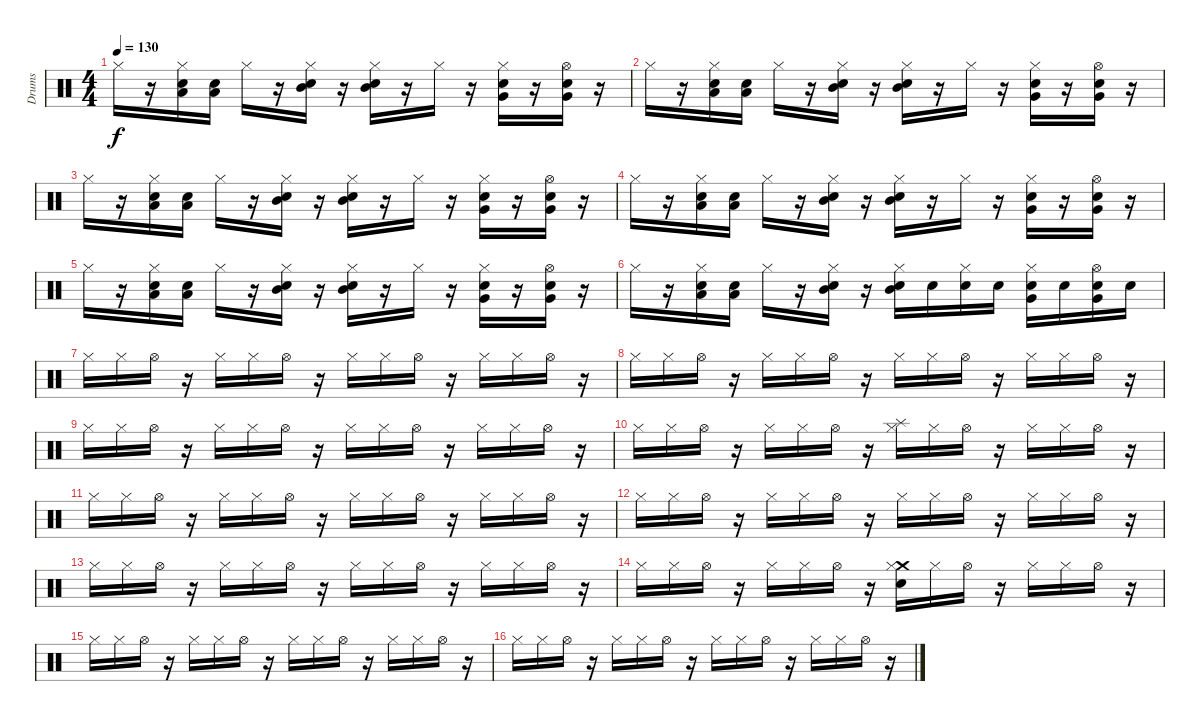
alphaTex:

\track ("Drums" "Drums") {instrument percussion}
\staff {score}
\articulation defaults
\ts (4 4)
\tempo 130
\clef neutral
\ks c "Hi-Hat (closed)".16{dy f}
r.16 ("Hi-Hat (closed)" "Electric Snare (hit)" "Low Tom (hit)").16 ("Electric Snare (hit)" "Low Tom (hit)").16 "Hi-Hat (closed)".16 r.16 ("Hi-Hat (closed)" "Mid Tom (hit)" "Electric Snare (hit)").16 r.16 ("Hi-Hat (closed)" "Mid Tom (hit)" "Electric Snare (hit)").16 r.16 "Hi-Hat (closed)".16 r.16 ("Hi-Hat (closed)" "Very Low Tom (hit)" "Electric Snare (hit)").16 r.16 ("Hi-Hat (open)" "Very Low Tom (hit)" "Electric Snare (hit)").16 r.16 |
"Hi-Hat (closed)".16 r.16 ("Hi-Hat (closed)" "Electric Snare (hit)" "Low Tom (hit)").16 ("Electric Snare (hit)" "Low Tom (hit)").16 "Hi-Hat (closed)".16 r.16 ("Hi-Hat (closed)" "Mid Tom (hit)" "Electric Snare (hit)").16 r.16 ("Hi-Hat (closed)" "Mid Tom (hit)" "Electric Snare (hit)").16 r.16 "Hi-Hat (closed)".16 r.16 ("Hi-Hat (closed)" "Very Low Tom (hit)" "Electric Snare (hit)").16 r.16 ("Hi-Hat (open)" "Very Low Tom (hit)" "Electric Snare (hit)").16 r.16 |
"Hi-Hat (closed)".16 r.16 ("Hi-Hat (closed)" "Electric Snare (hit)" "Low Tom (hit)").16 ("Electric Snare (hit)" "Low Tom (hit)").16 "Hi-Hat (closed)".16 r.16 ("Hi-Hat (closed)" "Mid Tom (hit)" "Electric Snare (hit)").16 r.16 ("Hi-Hat (closed)" "Mid Tom (hit)" "Electric Snare (hit)").16 r.16 "Hi-Hat (closed)".16 r.16 ("Hi-Hat (closed)" "Very Low Tom (hit)" "Electric Snare (hit)").16 r.16 ("Hi-Hat (open)" "Very Low Tom (hit)" "Electric Snare (hit)").16 r.16 |
"Hi-Hat (closed)".16 r.16 ("Hi-Hat (closed)" "Electric Snare (hit)" "Low Tom (hit)").16 ("Electric Snare (hit)" "Low Tom (hit)").16 "Hi-Hat (closed)".16 r.16 ("Hi-Hat (closed)" "Mid Tom (hit)" "Electric Snare (hit)").16 r.16 ("Hi-Hat (closed)" "Mid Tom (hit)" "Electric Snare (hit)").16 r.16 "Hi-Hat (closed)".16 r.16 ("Hi-Hat (closed)" "Very Low Tom (hit)" "Electric Snare (hit)").16 r.16 ("Hi-Hat (open)" "Very Low Tom (hit)" "Electric Snare (hit)").16 r.16 |
"Hi-Hat (closed)".16 r.16 ("Hi-Hat (closed)" "Electric Snare (hit)" "Low Tom (hit)").16 ("Electric Snare (hit)" "Low Tom (hit)").16 "Hi-Hat (closed)".16 r.16 ("Hi-Hat (closed)" "Mid Tom (hit)" "Electric Snare (hit)").16 r.16 ("Hi-Hat (closed)" "Mid Tom (hit)" "Electric Snare (hit)").16 r.16 "Hi-Hat (closed)".16 r.16 ("Hi-Hat (closed)" "Very Low Tom (hit)" "Electric Snare (hit)").16 r.16 ("Hi-Hat (open)" "Very Low Tom (hit)" "Electric Snare (hit)").16 r.16 |
"Hi-Hat (closed)".16 r.16 ("Hi-Hat (closed)" "Electric Snare (hit)" "Low Tom (hit)").16 ("Electric Snare (hit)" "Low Tom (hit)").16 "Hi-Hat (closed)".16 r.16 ("Hi-Hat (closed)" "Mid Tom (hit)" "Electric Snare (hit)").16 r.16 ("Hi-Hat (closed)" "Mid Tom (hit)" "Electric Snare (hit)").16 "Electric Snare (hit)".16 ("Electric Snare (hit)" "Hi-Hat (closed)").16 "Electric Snare (hit)".16 ("Hi-Hat (closed)" "Very Low Tom (hit)" "Electric Snare (hit)").16 "Electric Snare (hit)".16 ("Hi-Hat (open)" "Very Low Tom (hit)" "Electric Snare (hit)").16 "Electric Snare (hit)".16 |
"Hi-Hat (closed)".16 "Hi-Hat (closed)".16 "Hi-Hat (open)".16 r.16 "Hi-Hat (closed)".16 "Hi-Hat (closed)".16 "Hi-Hat (open)".16 r.16 "Hi-Hat (closed)".16 "Hi-Hat (closed)".16 "Hi-Hat (open)".16 r.16 "Hi-Hat (closed)".16 "Hi-Hat (closed)".16 "Hi-Hat (open)".16 r.16 |
"Hi-Hat (closed)".16 "Hi-Hat (closed)".16 "Hi-Hat (open)".16 r.16 "Hi-Hat (closed)".16 "Hi-Hat (closed)".16 "Hi-Hat (open)".16 r.16 "Hi-Hat (closed)".16 "Hi-Hat (closed)".16 "Hi-Hat (open)".16 r.16 "Hi-Hat (closed)".16 "Hi-Hat (closed)".16 "Hi-Hat (open)".16 r.16 |
"Hi-Hat (closed)".16 "Hi-Hat (closed)".16 "Hi-Hat (open)".16 r.16 "Hi-Hat (closed)".16 "Hi-Hat (closed)".16 "Hi-Hat (open)".16 r.16 "Hi-Hat (closed)".16 "Hi-Hat (closed)".16 "Hi-Hat (open)".16 r.16 "Hi-Hat (closed)".16 "Hi-Hat (closed)".16 "Hi-Hat (open)".16 r.16 |
"Hi-Hat (closed)".16 "Hi-Hat (closed)".16 "Hi-Hat (open)".16 r.16 "Hi-Hat (closed)".16 "Hi-Hat (closed)".16 "Hi-Hat (open)".16 r.16 ("Splash (hit)" "Hi-Hat (closed)").16 "Hi-Hat (closed)".16 "Hi-Hat (open)".16 r.16 "Hi-Hat (closed)".16 "Hi-Hat (closed)".16 "Hi-Hat (open)".16 r.16 |
"Hi-Hat (closed)".16 "Hi-Hat (closed)".16 "Hi-Hat (open)".16 r.16 "Hi-Hat (closed)".16 "Hi-Hat (closed)".16 "Hi-Hat (open)".16 r.16 "Hi-Hat (closed)".16 "Hi-Hat (closed)".16 "Hi-Hat (open)".16 r.16 "Hi-Hat (closed)".16 "Hi-Hat (closed)".16 "Hi-Hat (open)".16 r.16 |
"Hi-Hat (closed)".16 "Hi-Hat (closed)".16 "Hi-Hat (open)".16 r.16 "Hi-Hat (closed)".16 "Hi-Hat (closed)".16 "Hi-Hat (open)".16 r.16 "Hi-Hat (closed)".16 "Hi-Hat (closed)".16 "Hi-Hat (open)".16 r.16 "Hi-Hat (closed)".16 "Hi-Hat (closed)".16 "Hi-Hat (open)".16 r.16 |
"Hi-Hat (closed)".16 "Hi-Hat (closed)".16 "Hi-Hat (open)".16 r.16 "Hi-Hat (closed)".16 "Hi-Hat (closed)".16 "Hi-Hat (open)".16 r.16 "Hi-Hat (closed)".16 "Hi-Hat (closed)".16 "Hi-Hat (open)".16 r.16 "Hi-Hat (closed)".16 "Hi-Hat (closed)".16 "Hi-Hat (open)".16 r.16 |
"Hi-Hat (closed)".16 "Hi-Hat (closed)".16 "Hi-Hat (open)".16 r.16 "Hi-Hat (closed)".16 "Hi-Hat (closed)".16 "Hi-Hat (open)".16 r.16 ("Crash medium (hit)" "Electric Snare (hit)" "Hi-Hat (closed)").16 "Hi-Hat (closed)".16 "Hi-Hat (open)".16 r.16 "Hi-Hat (closed)".16 "Hi-Hat (closed)".16 "Hi-Hat (open)".16 r.16 |
"Hi-Hat (closed)".16 "Hi-Hat (closed)".16 "Hi-Hat (open)".16 r.16 "Hi-Hat (closed)".16 "Hi-Hat (closed)".16 "Hi-Hat (open)".16 r.16 "Hi-Hat (closed)".16 "Hi-Hat (closed)".16 "Hi-Hat (open)".16 r.16 "Hi-Hat (closed)".16 "Hi-Hat (closed)".16 "Hi-Hat (open)".16 r.16 |
"Hi-Hat (closed)".16 "Hi-Hat (closed)".16 "Hi-Hat (open)".16 r.16 "Hi-Hat (closed)".16 "Hi-Hat (closed)".16 "Hi-Hat (open)".16 r.16 "Hi-Hat (closed)".16 "Hi-Hat (closed)".16 "Hi-Hat (open)".16 r.16 "Hi-Hat (closed)".16 "Hi-Hat (closed)".16 "Hi-Hat (open)".16 r.16
